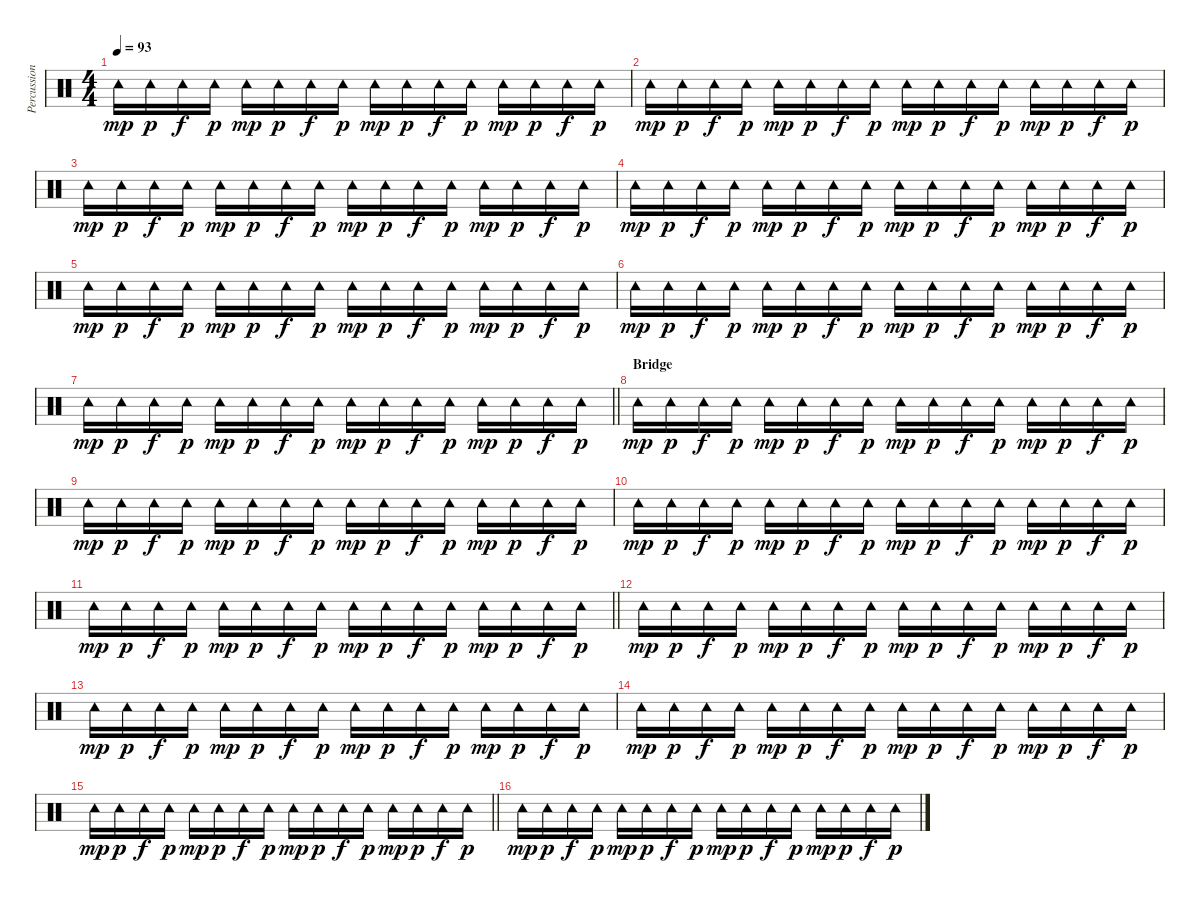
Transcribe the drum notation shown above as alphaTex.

\track ("Percussion" "Percussion") {instrument percussion}
\staff {score}
\articulation defaults
\ts (4 4)
\tempo 93
\clef neutral
\ks c "Tambourine (hit)".16{dy mp} "Tambourine (hit)".16{dy p} "Tambourine (hit)".16{dy f} "Tambourine (hit)".16{dy p} "Tambourine (hit)".16{dy mp} "Tambourine (hit)".16{dy p} "Tambourine (hit)".16{dy f} "Tambourine (hit)".16{dy p} "Tambourine (hit)".16{dy mp} "Tambourine (hit)".16{dy p} "Tambourine (hit)".16{dy f} "Tambourine (hit)".16{dy p} "Tambourine (hit)".16{dy mp} "Tambourine (hit)".16{dy p} "Tambourine (hit)".16{dy f} "Tambourine (hit)".16{dy p}
|
"Tambourine (hit)".16{dy mp} "Tambourine (hit)".16{dy p} "Tambourine (hit)".16{dy f} "Tambourine (hit)".16{dy p} "Tambourine (hit)".16{dy mp} "Tambourine (hit)".16{dy p} "Tambourine (hit)".16{dy f} "Tambourine (hit)".16{dy p} "Tambourine (hit)".16{dy mp} "Tambourine (hit)".16{dy p} "Tambourine (hit)".16{dy f} "Tambourine (hit)".16{dy p} "Tambourine (hit)".16{dy mp} "Tambourine (hit)".16{dy p} "Tambourine (hit)".16{dy f} "Tambourine (hit)".16{dy p} |
"Tambourine (hit)".16{dy mp} "Tambourine (hit)".16{dy p} "Tambourine (hit)".16{dy f} "Tambourine (hit)".16{dy p} "Tambourine (hit)".16{dy mp} "Tambourine (hit)".16{dy p} "Tambourine (hit)".16{dy f} "Tambourine (hit)".16{dy p} "Tambourine (hit)".16{dy mp} "Tambourine (hit)".16{dy p} "Tambourine (hit)".16{dy f} "Tambourine (hit)".16{dy p} "Tambourine (hit)".16{dy mp} "Tambourine (hit)".16{dy p} "Tambourine (hit)".16{dy f} "Tambourine (hit)".16{dy p} |
"Tambourine (hit)".16{dy mp} "Tambourine (hit)".16{dy p} "Tambourine (hit)".16{dy f} "Tambourine (hit)".16{dy p} "Tambourine (hit)".16{dy mp} "Tambourine (hit)".16{dy p} "Tambourine (hit)".16{dy f} "Tambourine (hit)".16{dy p} "Tambourine (hit)".16{dy mp} "Tambourine (hit)".16{dy p} "Tambourine (hit)".16{dy f} "Tambourine (hit)".16{dy p} "Tambourine (hit)".16{dy mp} "Tambourine (hit)".16{dy p} "Tambourine (hit)".16{dy f} "Tambourine (hit)".16{dy p} |
"Tambourine (hit)".16{dy mp} "Tambourine (hit)".16{dy p} "Tambourine (hit)".16{dy f} "Tambourine (hit)".16{dy p} "Tambourine (hit)".16{dy mp} "Tambourine (hit)".16{dy p} "Tambourine (hit)".16{dy f} "Tambourine (hit)".16{dy p} "Tambourine (hit)".16{dy mp} "Tambourine (hit)".16{dy p} "Tambourine (hit)".16{dy f} "Tambourine (hit)".16{dy p} "Tambourine (hit)".16{dy mp} "Tambourine (hit)".16{dy p} "Tambourine (hit)".16{dy f} "Tambourine (hit)".16{dy p} |
"Tambourine (hit)".16{dy mp} "Tambourine (hit)".16{dy p} "Tambourine (hit)".16{dy f} "Tambourine (hit)".16{dy p} "Tambourine (hit)".16{dy mp} "Tambourine (hit)".16{dy p} "Tambourine (hit)".16{dy f} "Tambourine (hit)".16{dy p} "Tambourine (hit)".16{dy mp} "Tambourine (hit)".16{dy p} "Tambourine (hit)".16{dy f} "Tambourine (hit)".16{dy p} "Tambourine (hit)".16{dy mp} "Tambourine (hit)".16{dy p} "Tambourine (hit)".16{dy f} "Tambourine (hit)".16{dy p} |
\barLineRight lightlight "Tambourine (hit)".16{dy mp} "Tambourine (hit)".16{dy p} "Tambourine (hit)".16{dy f} "Tambourine (hit)".16{dy p} "Tambourine (hit)".16{dy mp} "Tambourine (hit)".16{dy p} "Tambourine (hit)".16{dy f} "Tambourine (hit)".16{dy p} "Tambourine (hit)".16{dy mp} "Tambourine (hit)".16{dy p} "Tambourine (hit)".16{dy f} "Tambourine (hit)".16{dy p} "Tambourine (hit)".16{dy mp} "Tambourine (hit)".16{dy p} "Tambourine (hit)".16{dy f} "Tambourine (hit)".16{dy p}
|
\section ("" "Bridge")
"Tambourine (hit)".16{dy mp} "Tambourine (hit)".16{dy p} "Tambourine (hit)".16{dy f} "Tambourine (hit)".16{dy p} "Tambourine (hit)".16{dy mp} "Tambourine (hit)".16{dy p} "Tambourine (hit)".16{dy f} "Tambourine (hit)".16{dy p} "Tambourine (hit)".16{dy mp} "Tambourine (hit)".16{dy p} "Tambourine (hit)".16{dy f} "Tambourine (hit)".16{dy p} "Tambourine (hit)".16{dy mp} "Tambourine (hit)".16{dy p} "Tambourine (hit)".16{dy f} "Tambourine (hit)".16{dy p} |
"Tambourine (hit)".16{dy mp} "Tambourine (hit)".16{dy p} "Tambourine (hit)".16{dy f} "Tambourine (hit)".16{dy p} "Tambourine (hit)".16{dy mp} "Tambourine (hit)".16{dy p} "Tambourine (hit)".16{dy f} "Tambourine (hit)".16{dy p} "Tambourine (hit)".16{dy mp} "Tambourine (hit)".16{dy p} "Tambourine (hit)".16{dy f} "Tambourine (hit)".16{dy p} "Tambourine (hit)".16{dy mp} "Tambourine (hit)".16{dy p} "Tambourine (hit)".16{dy f} "Tambourine (hit)".16{dy p} |
"Tambourine (hit)".16{dy mp} "Tambourine (hit)".16{dy p} "Tambourine (hit)".16{dy f} "Tambourine (hit)".16{dy p} "Tambourine (hit)".16{dy mp} "Tambourine (hit)".16{dy p} "Tambourine (hit)".16{dy f} "Tambourine (hit)".16{dy p} "Tambourine (hit)".16{dy mp} "Tambourine (hit)".16{dy p} "Tambourine (hit)".16{dy f} "Tambourine (hit)".16{dy p} "Tambourine (hit)".16{dy mp} "Tambourine (hit)".16{dy p} "Tambourine (hit)".16{dy f} "Tambourine (hit)".16{dy p} |
\barLineRight lightlight "Tambourine (hit)".16{dy mp} "Tambourine (hit)".16{dy p} "Tambourine (hit)".16{dy f} "Tambourine (hit)".16{dy p} "Tambourine (hit)".16{dy mp} "Tambourine (hit)".16{dy p} "Tambourine (hit)".16{dy f} "Tambourine (hit)".16{dy p} "Tambourine (hit)".16{dy mp} "Tambourine (hit)".16{dy p} "Tambourine (hit)".16{dy f} "Tambourine (hit)".16{dy p} "Tambourine (hit)".16{dy mp} "Tambourine (hit)".16{dy p} "Tambourine (hit)".16{dy f} "Tambourine (hit)".16{dy p}
|
\section ("" "")
"Tambourine (hit)".16{dy mp} "Tambourine (hit)".16{dy p} "Tambourine (hit)".16{dy f} "Tambourine (hit)".16{dy p} "Tambourine (hit)".16{dy mp} "Tambourine (hit)".16{dy p} "Tambourine (hit)".16{dy f} "Tambourine (hit)".16{dy p} "Tambourine (hit)".16{dy mp} "Tambourine (hit)".16{dy p} "Tambourine (hit)".16{dy f} "Tambourine (hit)".16{dy p} "Tambourine (hit)".16{dy mp} "Tambourine (hit)".16{dy p} "Tambourine (hit)".16{dy f} "Tambourine (hit)".16{dy p} |
"Tambourine (hit)".16{dy mp} "Tambourine (hit)".16{dy p} "Tambourine (hit)".16{dy f} "Tambourine (hit)".16{dy p} "Tambourine (hit)".16{dy mp} "Tambourine (hit)".16{dy p} "Tambourine (hit)".16{dy f} "Tambourine (hit)".16{dy p} "Tambourine (hit)".16{dy mp} "Tambourine (hit)".16{dy p} "Tambourine (hit)".16{dy f} "Tambourine (hit)".16{dy p} "Tambourine (hit)".16{dy mp} "Tambourine (hit)".16{dy p} "Tambourine (hit)".16{dy f} "Tambourine (hit)".16{dy p} |
"Tambourine (hit)".16{dy mp} "Tambourine (hit)".16{dy p} "Tambourine (hit)".16{dy f} "Tambourine (hit)".16{dy p} "Tambourine (hit)".16{dy mp} "Tambourine (hit)".16{dy p} "Tambourine (hit)".16{dy f} "Tambourine (hit)".16{dy p} "Tambourine (hit)".16{dy mp} "Tambourine (hit)".16{dy p} "Tambourine (hit)".16{dy f} "Tambourine (hit)".16{dy p} "Tambourine (hit)".16{dy mp} "Tambourine (hit)".16{dy p} "Tambourine (hit)".16{dy f} "Tambourine (hit)".16{dy p} |
\barLineRight lightlight "Tambourine (hit)".16{dy mp} "Tambourine (hit)".16{dy p} "Tambourine (hit)".16{dy f} "Tambourine (hit)".16{dy p} "Tambourine (hit)".16{dy mp} "Tambourine (hit)".16{dy p} "Tambourine (hit)".16{dy f} "Tambourine (hit)".16{dy p} "Tambourine (hit)".16{dy mp} "Tambourine (hit)".16{dy p} "Tambourine (hit)".16{dy f} "Tambourine (hit)".16{dy p} "Tambourine (hit)".16{dy mp} "Tambourine (hit)".16{dy p} "Tambourine (hit)".16{dy f} "Tambourine (hit)".16{dy p}
|
"Tambourine (hit)".16{dy mp} "Tambourine (hit)".16{dy p} "Tambourine (hit)".16{dy f} "Tambourine (hit)".16{dy p} "Tambourine (hit)".16{dy mp} "Tambourine (hit)".16{dy p} "Tambourine (hit)".16{dy f} "Tambourine (hit)".16{dy p} "Tambourine (hit)".16{dy mp} "Tambourine (hit)".16{dy p} "Tambourine (hit)".16{dy f} "Tambourine (hit)".16{dy p} "Tambourine (hit)".16{dy mp} "Tambourine (hit)".16{dy p} "Tambourine (hit)".16{dy f} "Tambourine (hit)".16{dy p}
